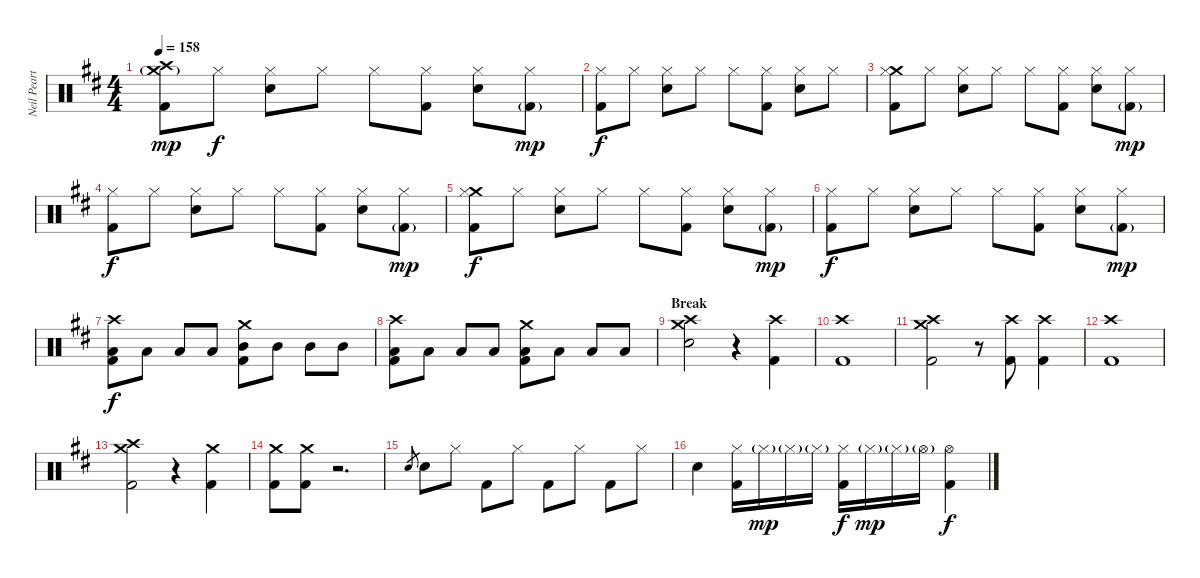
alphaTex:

\track ("Neil Peart (drums)" "Neil Peart") {instrument percussion}
\staff {score}
\articulation defaults
\ts (4 4)
\tempo 158
\clef neutral
\ks bminor
("Crash medium (hit)"{g} "Crash high (hit)" "Kick (hit) 2").8{dy mp} "Hi-Hat (closed)".8{dy f} ("Hi-Hat (closed)" "Electric Snare (hit)").8 "Hi-Hat (closed)".8 "Hi-Hat (closed)".8 ("Hi-Hat (closed)" "Kick (hit) 2").8 ("Hi-Hat (closed)" "Electric Snare (hit)").8 ("Hi-Hat (closed)" "Kick (hit) 2"{g}).8{dy mp} |
("Hi-Hat (closed)" "Kick (hit) 2").8{dy f} "Hi-Hat (closed)".8 ("Hi-Hat (closed)" "Electric Snare (hit)").8 "Hi-Hat (closed)".8 "Hi-Hat (closed)".8 ("Hi-Hat (closed)" "Kick (hit) 2").8 ("Hi-Hat (closed)" "Electric Snare (hit)").8 "Hi-Hat (closed)".8 |
("Crash medium (hit)" "Hi-Hat (closed)" "Kick (hit) 2").8 "Hi-Hat (closed)".8 ("Hi-Hat (closed)" "Electric Snare (hit)").8 "Hi-Hat (closed)".8 "Hi-Hat (closed)".8 ("Hi-Hat (closed)" "Kick (hit) 2").8 ("Hi-Hat (closed)" "Electric Snare (hit)").8 ("Hi-Hat (closed)" "Kick (hit) 2"{g}).8{dy mp} |
("Hi-Hat (closed)" "Kick (hit) 2").8{dy f} "Hi-Hat (closed)".8 ("Hi-Hat (closed)" "Electric Snare (hit)").8 "Hi-Hat (closed)".8 "Hi-Hat (closed)".8 ("Hi-Hat (closed)" "Kick (hit) 2").8 ("Hi-Hat (closed)" "Electric Snare (hit)").8 ("Hi-Hat (closed)" "Kick (hit) 2"{g}).8{dy mp} |
("Crash medium (hit)" "Hi-Hat (closed)" "Kick (hit) 2").8{dy f} "Hi-Hat (closed)".8 ("Hi-Hat (closed)" "Electric Snare (hit)").8 "Hi-Hat (closed)".8 "Hi-Hat (closed)".8 ("Hi-Hat (closed)" "Kick (hit) 2").8 ("Hi-Hat (closed)" "Electric Snare (hit)").8 ("Hi-Hat (closed)" "Kick (hit) 2"{g}).8{dy mp} |
("Hi-Hat (closed)" "Kick (hit) 2").8{dy f} "Hi-Hat (closed)".8 ("Hi-Hat (closed)" "Electric Snare (hit)").8 "Hi-Hat (closed)".8 "Hi-Hat (closed)".8 ("Hi-Hat (closed)" "Kick (hit) 2").8 ("Hi-Hat (closed)" "Electric Snare (hit)").8 ("Hi-Hat (closed)" "Kick (hit) 2"{g}).8{dy mp} |
("Crash high (hit)" "Low Tom (hit)" "Kick (hit) 2").8{dy f} "Low Tom (hit)".8 "Low Tom (hit)".8 "Low Tom (hit)".8 ("Crash medium (hit)" "Mid Tom (hit)" "Kick (hit) 2").8 "Mid Tom (hit)".8 "Mid Tom (hit)".8 "Mid Tom (hit)".8 |
("Crash high (hit)" "Low Tom (hit)" "Kick (hit) 2").8 "Low Tom (hit)".8 "Low Tom (hit)".8 "Low Tom (hit)".8 ("Crash medium (hit)" "Low Tom (hit)" "Kick (hit) 2").8 "Low Tom (hit)".8 "Low Tom (hit)".8 "Low Tom (hit)".8 |
\section ("" "Break")
("Crash medium (hit)" "Crash high (hit)" "Electric Snare (hit)").2 r.4 ("Crash high (hit)" "Kick (hit) 2").4 |
("Crash high (hit)" "Kick (hit) 2").1 |
("Crash medium (hit)" "Crash high (hit)" "Kick (hit) 2").2 r.8 ("Crash high (hit)" "Kick (hit) 2").8 ("Crash high (hit)" "Kick (hit) 2").4 |
("Crash high (hit)" "Kick (hit) 2").1 |
("Crash medium (hit)" "Crash high (hit)" "Kick (hit) 2").2 r.4 ("Crash medium (hit)" "Kick (hit) 2").4 |
("Crash medium (hit)" "Kick (hit) 2").8 ("Crash medium (hit)" "Kick (hit) 2").8 r.2{d} |
"Electric Snare (hit)".8{gr} "Electric Snare (hit)".8 "Hi-Hat (closed)".8 "Kick (hit) 2".8 "Hi-Hat (closed)".8 "Kick (hit) 2".8 "Hi-Hat (closed)".8 "Kick (hit) 2".8 "Hi-Hat (closed)".8 |
"Electric Snare (hit)".4 ("Hi-Hat (closed)" "Kick (hit) 2").16 "Hi-Hat (closed)"{g}.16{dy mp} "Hi-Hat (closed)"{g}.16 "Hi-Hat (closed)"{g}.16 ("Hi-Hat (closed)" "Kick (hit) 2").16{dy f} "Hi-Hat (closed)"{g}.16{dy mp} "Hi-Hat (closed)"{g}.16 "Hi-Hat (open)"{g}.16 ("Hi-Hat (open)" "Kick (hit) 2").4{dy f}
